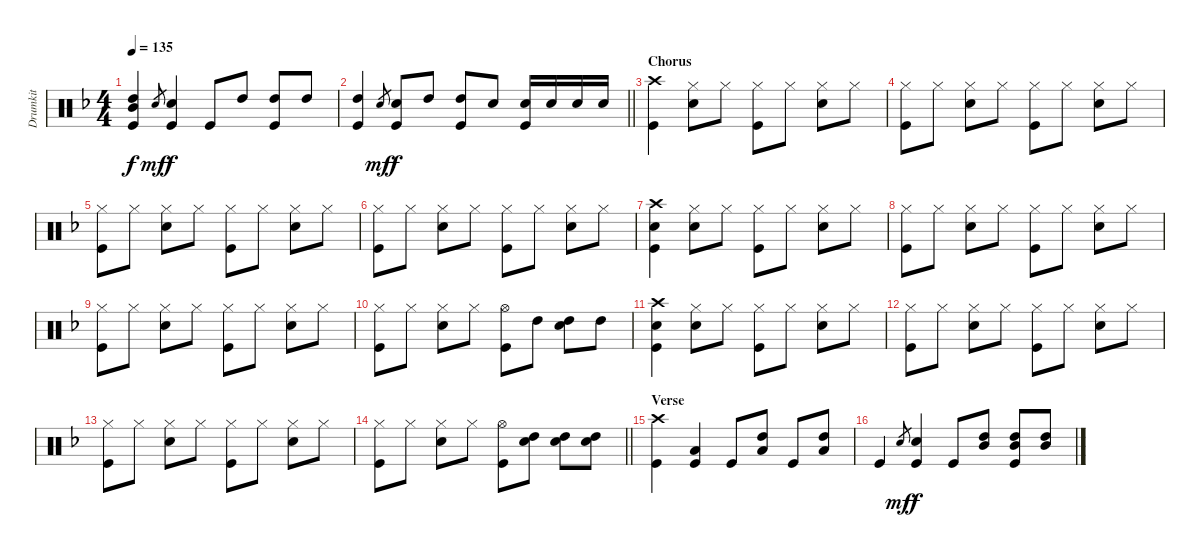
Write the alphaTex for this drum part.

\track ("Drumkit" "Drumkit") {instrument percussion}
\staff {score}
\articulation defaults
\ts (4 4)
\tempo 135
\clef neutral
\ks f
("High Tom (hit)" "Mid Tom (hit)" "Kick (hit)").4{dy f} "Snare (hit)".8{gr dy mf} ("Snare (hit) 2" "Kick (hit)").4{dy f} "Kick (hit)".8 "High Tom (hit)".8 ("High Tom (hit)" "Kick (hit)").8 "High Tom (hit)".8 |
\barLineRight lightlight
("High Tom (hit)" "Kick (hit)").4 "Snare (hit)".8{gr dy mf} ("Snare (hit) 2" "Kick (hit)").8{dy f} "High Tom (hit)".8 ("High Tom (hit)" "Kick (hit)").8 "Snare (hit) 2".8 ("Snare (hit) 2" "Kick (hit)").16 "Snare (hit) 2".16 "Snare (hit) 2".16 "Snare (hit) 2".16 |
\section ("" "Chorus")
("Crash high (hit)" "Kick (hit)").4 ("Hi-Hat (closed)" "Snare (hit) 2").8 "Hi-Hat (closed)".8 ("Hi-Hat (closed)" "Kick (hit)").8 "Hi-Hat (closed)".8 ("Hi-Hat (closed)" "Snare (hit) 2").8 "Hi-Hat (closed)".8 |
("Hi-Hat (closed)" "Kick (hit)").8 "Hi-Hat (closed)".8 ("Hi-Hat (closed)" "Snare (hit) 2").8 "Hi-Hat (closed)".8 ("Hi-Hat (closed)" "Kick (hit)").8 "Hi-Hat (closed)".8 ("Hi-Hat (closed)" "Snare (hit) 2").8 "Hi-Hat (closed)".8 |
("Hi-Hat (closed)" "Kick (hit)").8 "Hi-Hat (closed)".8 ("Hi-Hat (closed)" "Snare (hit) 2").8 "Hi-Hat (closed)".8 ("Hi-Hat (closed)" "Kick (hit)").8 "Hi-Hat (closed)".8 ("Hi-Hat (closed)" "Snare (hit) 2").8 "Hi-Hat (closed)".8 |
("Hi-Hat (closed)" "Kick (hit)").8 "Hi-Hat (closed)".8 ("Hi-Hat (closed)" "Snare (hit) 2").8 "Hi-Hat (closed)".8 ("Hi-Hat (closed)" "Kick (hit)").8 "Hi-Hat (closed)".8 ("Hi-Hat (closed)" "Snare (hit) 2").8 "Hi-Hat (closed)".8 |
("Crash high (hit)" "Snare (hit) 2" "Kick (hit)").4 ("Hi-Hat (closed)" "Snare (hit) 2").8 "Hi-Hat (closed)".8 ("Hi-Hat (closed)" "Kick (hit)").8 "Hi-Hat (closed)".8 ("Hi-Hat (closed)" "Snare (hit) 2").8 "Hi-Hat (closed)".8 |
("Hi-Hat (closed)" "Kick (hit)").8 "Hi-Hat (closed)".8 ("Hi-Hat (closed)" "Snare (hit) 2").8 "Hi-Hat (closed)".8 ("Hi-Hat (closed)" "Kick (hit)").8 "Hi-Hat (closed)".8 ("Hi-Hat (closed)" "Snare (hit) 2").8 "Hi-Hat (closed)".8 |
("Hi-Hat (closed)" "Kick (hit)").8 "Hi-Hat (closed)".8 ("Hi-Hat (closed)" "Snare (hit) 2").8 "Hi-Hat (closed)".8 ("Hi-Hat (closed)" "Kick (hit)").8 "Hi-Hat (closed)".8 ("Hi-Hat (closed)" "Snare (hit) 2").8 "Hi-Hat (closed)".8 |
("Hi-Hat (closed)" "Kick (hit)").8 "Hi-Hat (closed)".8 ("Hi-Hat (closed)" "Snare (hit) 2").8 "Hi-Hat (closed)".8 ("Hi-Hat (open)" "Kick (hit)").8 "High Tom (hit)".8 ("High Tom (hit)" "Snare (hit) 2").8 "High Tom (hit)".8 |
("Crash high (hit)" "Snare (hit) 2" "Kick (hit)").4 ("Hi-Hat (closed)" "Snare (hit) 2").8 "Hi-Hat (closed)".8 ("Hi-Hat (closed)" "Kick (hit)").8 "Hi-Hat (closed)".8 ("Hi-Hat (closed)" "Snare (hit) 2").8 "Hi-Hat (closed)".8 |
("Hi-Hat (closed)" "Kick (hit)").8 "Hi-Hat (closed)".8 ("Hi-Hat (closed)" "Snare (hit) 2").8 "Hi-Hat (closed)".8 ("Hi-Hat (closed)" "Kick (hit)").8 "Hi-Hat (closed)".8 ("Hi-Hat (closed)" "Snare (hit) 2").8 "Hi-Hat (closed)".8 |
("Hi-Hat (closed)" "Kick (hit)").8 "Hi-Hat (closed)".8 ("Hi-Hat (closed)" "Snare (hit) 2").8 "Hi-Hat (closed)".8 ("Hi-Hat (closed)" "Kick (hit)").8 "Hi-Hat (closed)".8 ("Hi-Hat (closed)" "Snare (hit) 2").8 "Hi-Hat (closed)".8 |
\barLineRight lightlight
("Hi-Hat (closed)" "Kick (hit)").8 "Hi-Hat (closed)".8 ("Hi-Hat (closed)" "Snare (hit) 2").8 "Hi-Hat (closed)".8 ("Hi-Hat (open)" "Kick (hit)").8 ("High Tom (hit)" "Snare (hit) 2").8 ("High Tom (hit)" "Snare (hit) 2").8 ("High Tom (hit)" "Snare (hit) 2").8 |
\section ("" "Verse")
("Crash high (hit)" "Kick (hit)").4 ("Low Tom (hit)" "Kick (hit)").4 "Kick (hit)".8 ("High Tom (hit)" "Low Tom (hit)").8 "Kick (hit)".8 ("High Tom (hit)" "Low Tom (hit)").8 |
"Kick (hit)".4 "Snare (hit)".8{gr dy mf} ("Snare (hit) 2" "Kick (hit)").4{dy f} "Kick (hit)".8 ("High Tom (hit)" "Mid Tom (hit)").8 ("High Tom (hit)" "Mid Tom (hit)" "Kick (hit)").8 ("High Tom (hit)" "Mid Tom (hit)").8
